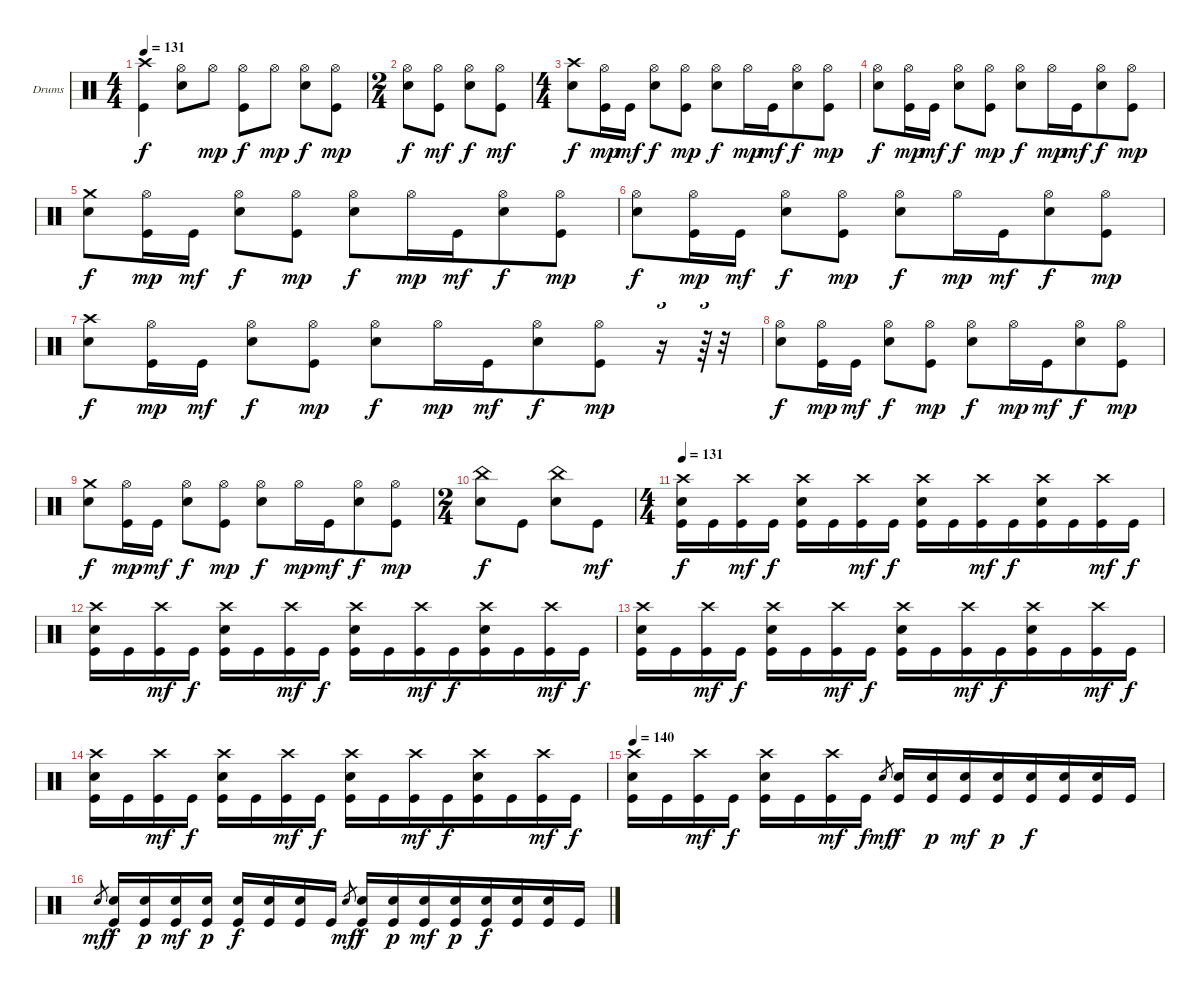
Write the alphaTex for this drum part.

\bracketExtendMode groupsimilarinstruments
\firstSystemTrackNameOrientation horizontal
\otherSystemsTrackNameOrientation horizontal
\track ("Drumkit" "Drums") {instrument percussion}
\staff {score}
\articulation defaults
\ts (4 4)
\tempo 131
\clef neutral
\ks c
("Crash high (hit)" "Kick (hit)").4{dy f} ("Hi-Hat (open)" "Snare (hit) 2").8 "Hi-Hat (open)".8{dy mp} ("Hi-Hat (open)" "Kick (hit)").8{dy f} "Hi-Hat (open)".8{dy mp} ("Hi-Hat (open)" "Snare (hit) 2").8{dy f} ("Hi-Hat (open)" "Kick (hit)").8{dy mp} |
\ts (2 4)
\beaming (8 2 2)
("Hi-Hat (open)" "Snare (hit) 2").8{dy f} ("Hi-Hat (open)" "Kick (hit)").8{dy mf} ("Hi-Hat (open)" "Snare (hit) 2").8{dy f} ("Hi-Hat (open)" "Kick (hit)").8{dy mf} |
\ts (4 4)
\beaming (8 2 2 4)
("Crash high (hit)" "Snare (hit) 2").8{dy f} ("Hi-Hat (open)" "Kick (hit)").16{dy mp} "Kick (hit)".16{dy mf} ("Hi-Hat (open)" "Snare (hit) 2").8{dy f} ("Hi-Hat (open)" "Kick (hit)").8{dy mp} ("Hi-Hat (open)" "Snare (hit) 2").8{dy f} "Hi-Hat (open)".16{dy mp} "Kick (hit)".16{dy mf} ("Hi-Hat (open)" "Snare (hit) 2").8{dy f} ("Hi-Hat (open)" "Kick (hit)").8{dy mp} |
("Hi-Hat (open)" "Snare (hit) 2").8{dy f} ("Hi-Hat (open)" "Kick (hit)").16{dy mp} "Kick (hit)".16{dy mf} ("Hi-Hat (open)" "Snare (hit) 2").8{dy f} ("Hi-Hat (open)" "Kick (hit)").8{dy mp} ("Hi-Hat (open)" "Snare (hit) 2").8{dy f} "Hi-Hat (open)".16{dy mp} "Kick (hit)".16{dy mf} ("Hi-Hat (open)" "Snare (hit) 2").8{dy f} ("Hi-Hat (open)" "Kick (hit)").8{dy mp} |
("Crash medium (hit)" "Snare (hit) 2").8{dy f} ("Hi-Hat (open)" "Kick (hit)").16{dy mp} "Kick (hit)".16{dy mf} ("Hi-Hat (open)" "Snare (hit) 2").8{dy f} ("Hi-Hat (open)" "Kick (hit)").8{dy mp} ("Hi-Hat (open)" "Snare (hit) 2").8{dy f} "Hi-Hat (open)".16{dy mp} "Kick (hit)".16{dy mf} ("Hi-Hat (open)" "Snare (hit) 2").8{dy f} ("Hi-Hat (open)" "Kick (hit)").8{dy mp} |
("Hi-Hat (open)" "Snare (hit) 2").8{dy f} ("Hi-Hat (open)" "Kick (hit)").16{dy mp} "Kick (hit)".16{dy mf} ("Hi-Hat (open)" "Snare (hit) 2").8{dy f} ("Hi-Hat (open)" "Kick (hit)").8{dy mp} ("Hi-Hat (open)" "Snare (hit) 2").8{dy f} "Hi-Hat (open)".16{dy mp} "Kick (hit)".16{dy mf} ("Hi-Hat (open)" "Snare (hit) 2").8{dy f} ("Hi-Hat (open)" "Kick (hit)").8{dy mp} |
("Crash high (hit)" "Snare (hit) 2").8{dy f} ("Hi-Hat (open)" "Kick (hit)").16{dy mp} "Kick (hit)".16{dy mf} ("Hi-Hat (open)" "Snare (hit) 2").8{dy f} ("Hi-Hat (open)" "Kick (hit)").8{dy mp} ("Hi-Hat (open)" "Snare (hit) 2").8{dy f} "Hi-Hat (open)".16{dy mp} "Kick (hit)".16{dy mf} ("Hi-Hat (open)" "Snare (hit) 2").8{dy f} ("Hi-Hat (open)" "Kick (hit)").8{dy mp} r.16{tu (3 2)} r.64{tu (3 2)} r.32 |
("Hi-Hat (open)" "Snare (hit) 2").8{dy f} ("Hi-Hat (open)" "Kick (hit)").16{dy mp} "Kick (hit)".16{dy mf} ("Hi-Hat (open)" "Snare (hit) 2").8{dy f} ("Hi-Hat (open)" "Kick (hit)").8{dy mp} ("Hi-Hat (open)" "Snare (hit) 2").8{dy f} "Hi-Hat (open)".16{dy mp} "Kick (hit)".16{dy mf} ("Hi-Hat (open)" "Snare (hit) 2").8{dy f} ("Hi-Hat (open)" "Kick (hit)").8{dy mp} |
("Crash medium (hit)" "Snare (hit) 2").8{dy f} ("Hi-Hat (open)" "Kick (hit)").16{dy mp} "Kick (hit)".16{dy mf} ("Hi-Hat (open)" "Snare (hit) 2").8{dy f} ("Hi-Hat (open)" "Kick (hit)").8{dy mp} ("Hi-Hat (open)" "Snare (hit) 2").8{dy f} "Hi-Hat (open)".16{dy mp} "Kick (hit)".16{dy mf} ("Hi-Hat (open)" "Snare (hit) 2").8{dy f} ("Hi-Hat (open)" "Kick (hit)").8{dy mp} |
\ts (2 4)
\beaming (8 2 2)
("China (hit)" "Snare (hit) 2").8{dy f} "Kick (hit)".8 ("China (hit)" "Snare (hit) 2").8 "Kick (hit)".8{dy mf} |
\ts (4 4)
\beaming (8 2 2 4)
\tempo 131
("Crash high (hit)" "Snare (hit) 2" "Kick (hit)").16{dy f} "Kick (hit)".16 ("Crash high (hit)" "Kick (hit)").16{dy mf} "Kick (hit)".16{dy f} ("Crash high (hit)" "Snare (hit) 2" "Kick (hit)").16 "Kick (hit)".16 ("Crash high (hit)" "Kick (hit)").16{dy mf} "Kick (hit)".16{dy f} ("Crash high (hit)" "Snare (hit) 2" "Kick (hit)").16 "Kick (hit)".16 ("Crash high (hit)" "Kick (hit)").16{dy mf} "Kick (hit)".16{dy f} ("Crash high (hit)" "Snare (hit) 2" "Kick (hit)").16 "Kick (hit)".16 ("Crash high (hit)" "Kick (hit)").16{dy mf} "Kick (hit)".16{dy f} |
("Crash high (hit)" "Snare (hit) 2" "Kick (hit)").16 "Kick (hit)".16 ("Crash high (hit)" "Kick (hit)").16{dy mf} "Kick (hit)".16{dy f} ("Crash high (hit)" "Snare (hit) 2" "Kick (hit)").16 "Kick (hit)".16 ("Crash high (hit)" "Kick (hit)").16{dy mf} "Kick (hit)".16{dy f} ("Crash high (hit)" "Snare (hit) 2" "Kick (hit)").16 "Kick (hit)".16 ("Crash high (hit)" "Kick (hit)").16{dy mf} "Kick (hit)".16{dy f} ("Crash high (hit)" "Snare (hit) 2" "Kick (hit)").16 "Kick (hit)".16 ("Crash high (hit)" "Kick (hit)").16{dy mf} "Kick (hit)".16{dy f} |
("Crash high (hit)" "Snare (hit) 2" "Kick (hit)").16 "Kick (hit)".16 ("Crash high (hit)" "Kick (hit)").16{dy mf} "Kick (hit)".16{dy f} ("Crash high (hit)" "Snare (hit) 2" "Kick (hit)").16 "Kick (hit)".16 ("Crash high (hit)" "Kick (hit)").16{dy mf} "Kick (hit)".16{dy f} ("Crash high (hit)" "Snare (hit) 2" "Kick (hit)").16 "Kick (hit)".16 ("Crash high (hit)" "Kick (hit)").16{dy mf} "Kick (hit)".16{dy f} ("Crash high (hit)" "Snare (hit) 2" "Kick (hit)").16 "Kick (hit)".16 ("Crash high (hit)" "Kick (hit)").16{dy mf} "Kick (hit)".16{dy f} |
("Crash high (hit)" "Snare (hit) 2" "Kick (hit)").16 "Kick (hit)".16 ("Crash high (hit)" "Kick (hit)").16{dy mf} "Kick (hit)".16{dy f} ("Crash high (hit)" "Snare (hit) 2" "Kick (hit)").16 "Kick (hit)".16 ("Crash high (hit)" "Kick (hit)").16{dy mf} "Kick (hit)".16{dy f} ("Crash high (hit)" "Snare (hit) 2" "Kick (hit)").16 "Kick (hit)".16 ("Crash high (hit)" "Kick (hit)").16{dy mf} "Kick (hit)".16{dy f} ("Crash high (hit)" "Snare (hit) 2" "Kick (hit)").16 "Kick (hit)".16 ("Crash high (hit)" "Kick (hit)").16{dy mf} "Kick (hit)".16{dy f} |
\tempo 140
("Crash high (hit)" "Snare (hit) 2" "Kick (hit)").16 "Kick (hit)".16 ("Crash high (hit)" "Kick (hit)").16{dy mf} "Kick (hit)".16{dy f} ("Crash high (hit)" "Snare (hit) 2" "Kick (hit)").16 "Kick (hit)".16 ("Crash high (hit)" "Kick (hit)").16{dy mf} "Kick (hit)".16{dy f} "Snare (hit) 2".8{gr dy mf} ("Snare (hit) 2" "Kick (hit)").16{dy f} ("Snare (hit) 2" "Kick (hit)").16{dy p} ("Snare (hit) 2" "Kick (hit)").16{dy mf} ("Snare (hit) 2" "Kick (hit)").16{dy p} ("Snare (hit) 2" "Kick (hit)").16{dy f} ("Snare (hit) 2" "Kick (hit)").16 ("Snare (hit) 2" "Kick (hit)").16 "Kick (hit)".16 |
"Snare (hit) 2".8{gr dy mf} ("Snare (hit) 2" "Kick (hit)").16{dy f} ("Snare (hit) 2" "Kick (hit)").16{dy p} ("Snare (hit) 2" "Kick (hit)").16{dy mf} ("Snare (hit) 2" "Kick (hit)").16{dy p} ("Snare (hit) 2" "Kick (hit)").16{dy f} ("Snare (hit) 2" "Kick (hit)").16 ("Snare (hit) 2" "Kick (hit)").16 "Kick (hit)".16 "Snare (hit) 2".8{gr dy mf} ("Snare (hit) 2" "Kick (hit)").16{dy f} ("Snare (hit) 2" "Kick (hit)").16{dy p} ("Snare (hit) 2" "Kick (hit)").16{dy mf} ("Snare (hit) 2" "Kick (hit)").16{dy p} ("Snare (hit) 2" "Kick (hit)").16{dy f} ("Snare (hit) 2" "Kick (hit)").16 ("Snare (hit) 2" "Kick (hit)").16 "Kick (hit)".16
